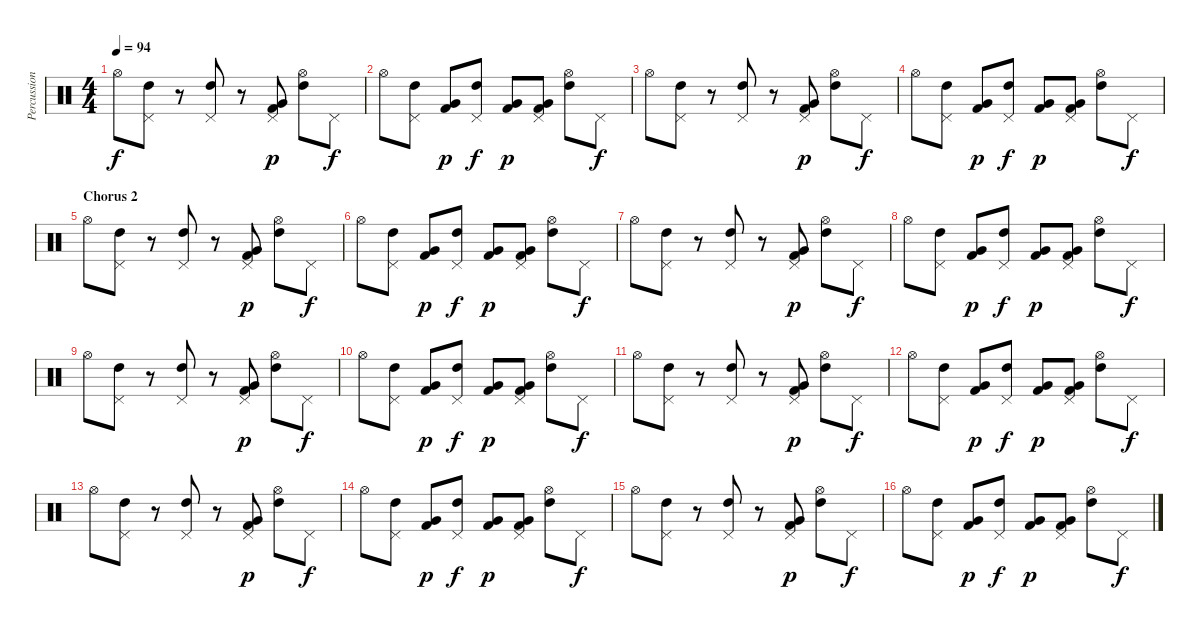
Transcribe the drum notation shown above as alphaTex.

\track ("Percussion" "Percussion") {instrument percussion}
\staff {score}
\articulation defaults
\ts (4 4)
\tempo 94
\clef neutral
\ks c "Hi-Hat (open)".8{dy f}
("Pedal Hi-Hat (hit)" "High Tom (hit)").8 r.8 ("Pedal Hi-Hat (hit)" "High Tom (hit)").8 r.8 ("Pedal Hi-Hat (hit)" "Very Low Tom (hit)" "Kick (hit) 2").8{dy p} ("Hi-Hat (open)" "High Tom (hit)").8 "Pedal Hi-Hat (hit)".8{dy f} |
"Hi-Hat (open)".8 ("Pedal Hi-Hat (hit)" "High Tom (hit)").8 ("Very Low Tom (hit)" "Kick (hit) 2").8{dy p} ("Pedal Hi-Hat (hit)" "High Tom (hit)").8{dy f} ("Very Low Tom (hit)" "Kick (hit) 2").8{dy p} ("Pedal Hi-Hat (hit)" "Very Low Tom (hit)" "Kick (hit) 2").8 ("Hi-Hat (open)" "High Tom (hit)").8 "Pedal Hi-Hat (hit)".8{dy f} |
"Hi-Hat (open)".8 ("Pedal Hi-Hat (hit)" "High Tom (hit)").8 r.8 ("Pedal Hi-Hat (hit)" "High Tom (hit)").8 r.8 ("Pedal Hi-Hat (hit)" "Very Low Tom (hit)" "Kick (hit) 2").8{dy p} ("Hi-Hat (open)" "High Tom (hit)").8 "Pedal Hi-Hat (hit)".8{dy f} |
"Hi-Hat (open)".8 ("Pedal Hi-Hat (hit)" "High Tom (hit)").8 ("Very Low Tom (hit)" "Kick (hit) 2").8{dy p} ("Pedal Hi-Hat (hit)" "High Tom (hit)").8{dy f} ("Very Low Tom (hit)" "Kick (hit) 2").8{dy p} ("Pedal Hi-Hat (hit)" "Very Low Tom (hit)" "Kick (hit) 2").8 ("Hi-Hat (open)" "High Tom (hit)").8 "Pedal Hi-Hat (hit)".8{dy f} |
\section ("" "Chorus 2")
"Hi-Hat (open)".8 ("Pedal Hi-Hat (hit)" "High Tom (hit)").8 r.8 ("Pedal Hi-Hat (hit)" "High Tom (hit)").8 r.8 ("Pedal Hi-Hat (hit)" "Very Low Tom (hit)" "Kick (hit) 2").8{dy p} ("Hi-Hat (open)" "High Tom (hit)").8 "Pedal Hi-Hat (hit)".8{dy f} |
"Hi-Hat (open)".8 ("Pedal Hi-Hat (hit)" "High Tom (hit)").8 ("Very Low Tom (hit)" "Kick (hit) 2").8{dy p} ("Pedal Hi-Hat (hit)" "High Tom (hit)").8{dy f} ("Very Low Tom (hit)" "Kick (hit) 2").8{dy p} ("Pedal Hi-Hat (hit)" "Very Low Tom (hit)" "Kick (hit) 2").8 ("Hi-Hat (open)" "High Tom (hit)").8 "Pedal Hi-Hat (hit)".8{dy f} |
"Hi-Hat (open)".8 ("Pedal Hi-Hat (hit)" "High Tom (hit)").8 r.8 ("Pedal Hi-Hat (hit)" "High Tom (hit)").8 r.8 ("Pedal Hi-Hat (hit)" "Very Low Tom (hit)" "Kick (hit) 2").8{dy p} ("Hi-Hat (open)" "High Tom (hit)").8 "Pedal Hi-Hat (hit)".8{dy f} |
"Hi-Hat (open)".8 ("Pedal Hi-Hat (hit)" "High Tom (hit)").8 ("Very Low Tom (hit)" "Kick (hit) 2").8{dy p} ("Pedal Hi-Hat (hit)" "High Tom (hit)").8{dy f} ("Very Low Tom (hit)" "Kick (hit) 2").8{dy p} ("Pedal Hi-Hat (hit)" "Very Low Tom (hit)" "Kick (hit) 2").8 ("Hi-Hat (open)" "High Tom (hit)").8 "Pedal Hi-Hat (hit)".8{dy f} |
"Hi-Hat (open)".8 ("Pedal Hi-Hat (hit)" "High Tom (hit)").8 r.8 ("Pedal Hi-Hat (hit)" "High Tom (hit)").8 r.8 ("Pedal Hi-Hat (hit)" "Very Low Tom (hit)" "Kick (hit) 2").8{dy p} ("Hi-Hat (open)" "High Tom (hit)").8 "Pedal Hi-Hat (hit)".8{dy f} |
"Hi-Hat (open)".8 ("Pedal Hi-Hat (hit)" "High Tom (hit)").8 ("Very Low Tom (hit)" "Kick (hit) 2").8{dy p} ("Pedal Hi-Hat (hit)" "High Tom (hit)").8{dy f} ("Very Low Tom (hit)" "Kick (hit) 2").8{dy p} ("Pedal Hi-Hat (hit)" "Very Low Tom (hit)" "Kick (hit) 2").8 ("Hi-Hat (open)" "High Tom (hit)").8 "Pedal Hi-Hat (hit)".8{dy f} |
"Hi-Hat (open)".8 ("Pedal Hi-Hat (hit)" "High Tom (hit)").8 r.8 ("Pedal Hi-Hat (hit)" "High Tom (hit)").8 r.8 ("Pedal Hi-Hat (hit)" "Very Low Tom (hit)" "Kick (hit) 2").8{dy p} ("Hi-Hat (open)" "High Tom (hit)").8 "Pedal Hi-Hat (hit)".8{dy f} |
"Hi-Hat (open)".8 ("Pedal Hi-Hat (hit)" "High Tom (hit)").8 ("Very Low Tom (hit)" "Kick (hit) 2").8{dy p} ("Pedal Hi-Hat (hit)" "High Tom (hit)").8{dy f} ("Very Low Tom (hit)" "Kick (hit) 2").8{dy p} ("Pedal Hi-Hat (hit)" "Very Low Tom (hit)" "Kick (hit) 2").8 ("Hi-Hat (open)" "High Tom (hit)").8 "Pedal Hi-Hat (hit)".8{dy f} |
"Hi-Hat (open)".8 ("Pedal Hi-Hat (hit)" "High Tom (hit)").8 r.8 ("Pedal Hi-Hat (hit)" "High Tom (hit)").8 r.8 ("Pedal Hi-Hat (hit)" "Very Low Tom (hit)" "Kick (hit) 2").8{dy p} ("Hi-Hat (open)" "High Tom (hit)").8 "Pedal Hi-Hat (hit)".8{dy f} |
"Hi-Hat (open)".8 ("Pedal Hi-Hat (hit)" "High Tom (hit)").8 ("Very Low Tom (hit)" "Kick (hit) 2").8{dy p} ("Pedal Hi-Hat (hit)" "High Tom (hit)").8{dy f} ("Very Low Tom (hit)" "Kick (hit) 2").8{dy p} ("Pedal Hi-Hat (hit)" "Very Low Tom (hit)" "Kick (hit) 2").8 ("Hi-Hat (open)" "High Tom (hit)").8 "Pedal Hi-Hat (hit)".8{dy f} |
"Hi-Hat (open)".8 ("Pedal Hi-Hat (hit)" "High Tom (hit)").8 r.8 ("Pedal Hi-Hat (hit)" "High Tom (hit)").8 r.8 ("Pedal Hi-Hat (hit)" "Very Low Tom (hit)" "Kick (hit) 2").8{dy p} ("Hi-Hat (open)" "High Tom (hit)").8 "Pedal Hi-Hat (hit)".8{dy f} |
"Hi-Hat (open)".8 ("Pedal Hi-Hat (hit)" "High Tom (hit)").8 ("Very Low Tom (hit)" "Kick (hit) 2").8{dy p} ("Pedal Hi-Hat (hit)" "High Tom (hit)").8{dy f} ("Very Low Tom (hit)" "Kick (hit) 2").8{dy p} ("Pedal Hi-Hat (hit)" "Very Low Tom (hit)" "Kick (hit) 2").8 ("Hi-Hat (open)" "High Tom (hit)").8 "Pedal Hi-Hat (hit)".8{dy f}
